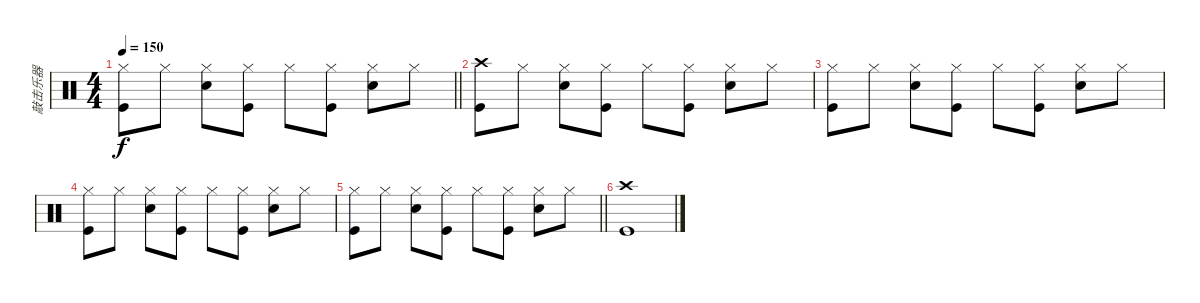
\track ("敲击乐器" "敲击乐器") {instrument percussion}
\staff {score}
\articulation defaults
\ts (4 4)
\tempo 150
\clef neutral
\barLineRight lightlight
\ks c
("Hi-Hat (closed)" "Kick (hit)").8{dy f} "Hi-Hat (closed)".8 ("Hi-Hat (closed)" "Snare (hit) 2").8 ("Hi-Hat (closed)" "Kick (hit)").8 "Hi-Hat (closed)".8 ("Hi-Hat (closed)" "Kick (hit)").8 ("Hi-Hat (closed)" "Snare (hit) 2").8 "Hi-Hat (closed)".8 |
("Crash high (hit)" "Kick (hit)").8 "Hi-Hat (closed)".8 ("Hi-Hat (closed)" "Snare (hit) 2").8 ("Hi-Hat (closed)" "Kick (hit)").8 "Hi-Hat (closed)".8 ("Hi-Hat (closed)" "Kick (hit)").8 ("Hi-Hat (closed)" "Snare (hit) 2").8 "Hi-Hat (closed)".8 |
("Hi-Hat (closed)" "Kick (hit)").8 "Hi-Hat (closed)".8 ("Hi-Hat (closed)" "Snare (hit) 2").8 ("Hi-Hat (closed)" "Kick (hit)").8 "Hi-Hat (closed)".8 ("Hi-Hat (closed)" "Kick (hit)").8 ("Hi-Hat (closed)" "Snare (hit) 2").8 "Hi-Hat (closed)".8 |
("Hi-Hat (closed)" "Kick (hit)").8 "Hi-Hat (closed)".8 ("Hi-Hat (closed)" "Snare (hit) 2").8 ("Hi-Hat (closed)" "Kick (hit)").8 "Hi-Hat (closed)".8 ("Hi-Hat (closed)" "Kick (hit)").8 ("Hi-Hat (closed)" "Snare (hit) 2").8 "Hi-Hat (closed)".8 |
\barLineRight lightlight
("Hi-Hat (closed)" "Kick (hit)").8{volume 6} "Hi-Hat (closed)".8 ("Hi-Hat (closed)" "Snare (hit) 2").8 ("Hi-Hat (closed)" "Kick (hit)").8 "Hi-Hat (closed)".8 ("Hi-Hat (closed)" "Kick (hit)").8 ("Hi-Hat (closed)" "Snare (hit) 2").8 "Hi-Hat (closed)".8 |
("Crash high (hit)" "Kick (hit)").1
